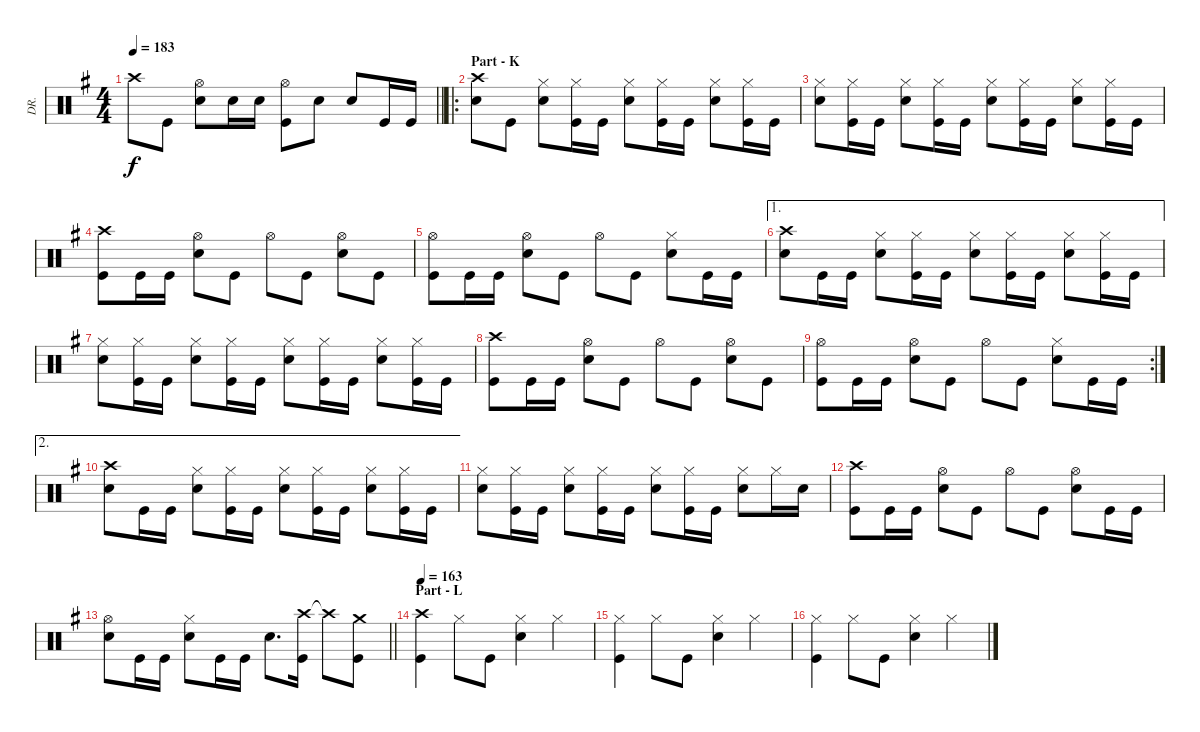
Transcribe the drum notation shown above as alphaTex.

\track ("DR." "DR.") {instrument percussion}
\staff {score}
\articulation defaults
\ts (4 4)
\tempo 183
\clef neutral
\barLineRight lightlight
\ks g "Crash high (hit)"{t}.8{dy f} "Kick (hit)".8
("Hi-Hat (open)" "Snare (hit) 2").8 "Snare (hit) 2".16 "Snare (hit) 2".16 ("Hi-Hat (open)" "Kick (hit)").8 "Snare (hit) 2".8 "Snare (hit) 2".8 "Kick (hit)".16 "Kick (hit)".16 |
\ro
\section ("" "Part - K")
("Crash high (hit)" "Snare (hit) 2").8 "Kick (hit)".8 ("Hi-Hat (closed)" "Snare (hit) 2").8 ("Hi-Hat (closed)" "Kick (hit)").16 "Kick (hit)".16 ("Hi-Hat (closed)" "Snare (hit) 2").8 ("Hi-Hat (closed)" "Kick (hit)").16 "Kick (hit)".16 ("Hi-Hat (closed)" "Snare (hit) 2").8 ("Hi-Hat (closed)" "Kick (hit)").16 "Kick (hit)".16 |
("Hi-Hat (closed)" "Snare (hit) 2").8 ("Hi-Hat (closed)" "Kick (hit)").16 "Kick (hit)".16 ("Hi-Hat (closed)" "Snare (hit) 2").8 ("Hi-Hat (closed)" "Kick (hit)").16 "Kick (hit)".16 ("Hi-Hat (closed)" "Snare (hit) 2").8 ("Hi-Hat (closed)" "Kick (hit)").16 "Kick (hit)".16 ("Hi-Hat (closed)" "Snare (hit) 2").8 ("Hi-Hat (closed)" "Kick (hit)").16 "Kick (hit)".16 |
("Crash high (hit)" "Kick (hit)").8 "Kick (hit)".16 "Kick (hit)".16 ("Hi-Hat (open)" "Snare (hit) 2").8 "Kick (hit)".8 "Hi-Hat (open)".8 "Kick (hit)".8 ("Hi-Hat (open)" "Snare (hit) 2").8 "Kick (hit)".8 |
("Hi-Hat (open)" "Kick (hit)").8 "Kick (hit)".16 "Kick (hit)".16 ("Hi-Hat (open)" "Snare (hit) 2").8 "Kick (hit)".8 "Hi-Hat (open)".8 "Kick (hit)".8 ("Hi-Hat (closed)" "Snare (hit) 2").8 "Kick (hit)".16 "Kick (hit)".16 |
\ae 1
("Crash high (hit)" "Snare (hit) 2").8 "Kick (hit)".16 "Kick (hit)".16 ("Hi-Hat (closed)" "Snare (hit) 2").8 ("Hi-Hat (closed)" "Kick (hit)").16 "Kick (hit)".16 ("Hi-Hat (closed)" "Snare (hit) 2").8 ("Hi-Hat (closed)" "Kick (hit)").16 "Kick (hit)".16 ("Hi-Hat (closed)" "Snare (hit) 2").8 ("Hi-Hat (closed)" "Kick (hit)").16 "Kick (hit)".16 |
("Hi-Hat (closed)" "Snare (hit) 2").8 ("Hi-Hat (closed)" "Kick (hit)").16 "Kick (hit)".16 ("Hi-Hat (closed)" "Snare (hit) 2").8 ("Hi-Hat (closed)" "Kick (hit)").16 "Kick (hit)".16 ("Hi-Hat (closed)" "Snare (hit) 2").8 ("Hi-Hat (closed)" "Kick (hit)").16 "Kick (hit)".16 ("Hi-Hat (closed)" "Snare (hit) 2").8 ("Hi-Hat (closed)" "Kick (hit)").16 "Kick (hit)".16 |
("Crash high (hit)" "Kick (hit)").8 "Kick (hit)".16 "Kick (hit)".16 ("Hi-Hat (open)" "Snare (hit) 2").8 "Kick (hit)".8 "Hi-Hat (open)".8 "Kick (hit)".8 ("Hi-Hat (open)" "Snare (hit) 2").8 "Kick (hit)".8 |
\rc 2
("Hi-Hat (open)" "Kick (hit)").8 "Kick (hit)".16 "Kick (hit)".16 ("Hi-Hat (open)" "Snare (hit) 2").8 "Kick (hit)".8 "Hi-Hat (open)".8 "Kick (hit)".8 ("Hi-Hat (closed)" "Snare (hit) 2").8 "Kick (hit)".16 "Kick (hit)".16 |
\ae 2
("Crash high (hit)" "Snare (hit) 2").8 "Kick (hit)".16 "Kick (hit)".16 ("Hi-Hat (closed)" "Snare (hit) 2").8 ("Hi-Hat (closed)" "Kick (hit)").16 "Kick (hit)".16 ("Hi-Hat (closed)" "Snare (hit) 2").8 ("Hi-Hat (closed)" "Kick (hit)").16 "Kick (hit)".16 ("Hi-Hat (closed)" "Snare (hit) 2").8 ("Hi-Hat (closed)" "Kick (hit)").16 "Kick (hit)".16 |
("Hi-Hat (closed)" "Snare (hit) 2").8 ("Hi-Hat (closed)" "Kick (hit)").16 "Kick (hit)".16 ("Hi-Hat (closed)" "Snare (hit) 2").8 ("Hi-Hat (closed)" "Kick (hit)").16 "Kick (hit)".16 ("Hi-Hat (closed)" "Snare (hit) 2").8 ("Hi-Hat (closed)" "Kick (hit)").16 "Kick (hit)".16 ("Hi-Hat (closed)" "Snare (hit) 2").8 "Hi-Hat (closed)".16 "Snare (hit) 2".16 |
("Crash high (hit)" "Kick (hit)").8 "Kick (hit)".16 "Kick (hit)".16 ("Hi-Hat (open)" "Snare (hit) 2").8 "Kick (hit)".8 "Hi-Hat (open)".8 "Kick (hit)".8 ("Hi-Hat (open)" "Snare (hit) 2").8 "Kick (hit)".16 "Kick (hit)".16 |
\barLineRight lightlight
("Hi-Hat (open)" "Snare (hit) 2").8 "Kick (hit)".16 "Kick (hit)".16 ("Hi-Hat (closed)" "Snare (hit) 2").8 "Kick (hit)".16 "Kick (hit)".16 "Snare (hit) 2".8{d} ("Crash high (hit)" "Kick (hit)").16 "Crash high (hit)"{t}.8 ("Crash medium (hit)" "Kick (hit)").8 |
\section ("" "Part - L")
\tempo 163
("Crash high (hit)" "Kick (hit)").4 "Hi-Hat (closed)".8 "Kick (hit)".8 ("Hi-Hat (closed)" "Snare (hit) 2").4 "Hi-Hat (closed)".4 |
("Hi-Hat (closed)" "Kick (hit)").4 "Hi-Hat (closed)".8 "Kick (hit)".8 ("Hi-Hat (closed)" "Snare (hit) 2").4 "Hi-Hat (closed)".4 |
("Hi-Hat (closed)" "Kick (hit)").4 "Hi-Hat (closed)".8 "Kick (hit)".8 ("Hi-Hat (closed)" "Snare (hit) 2").4 "Hi-Hat (closed)".4
